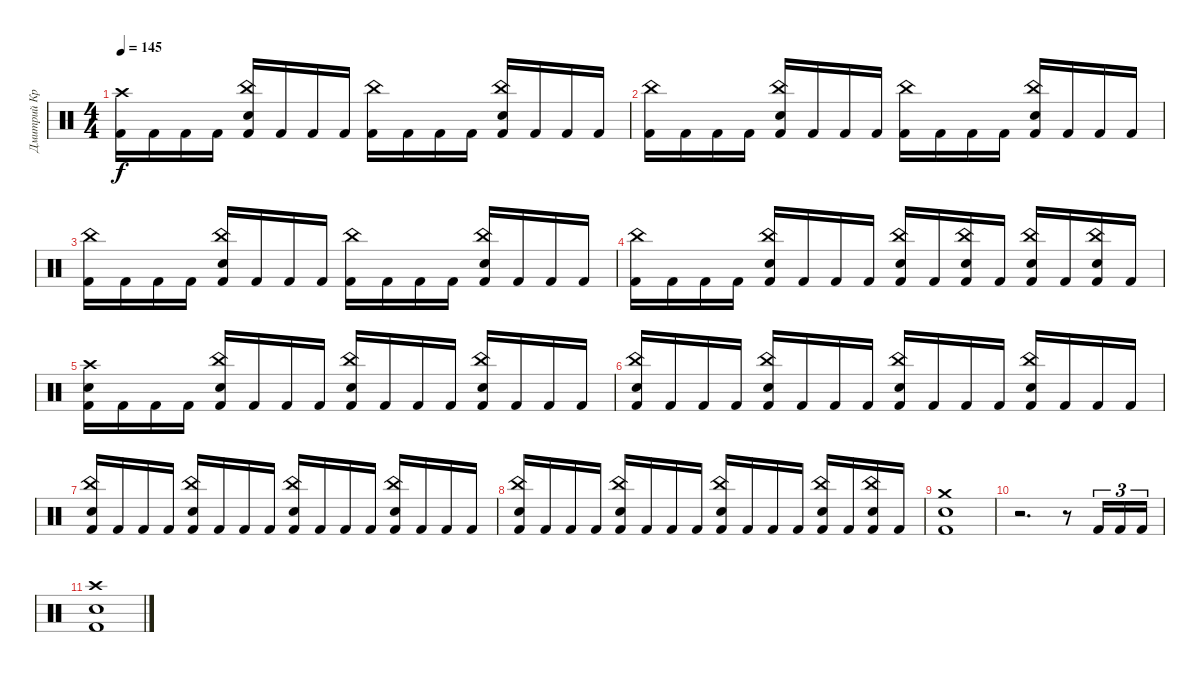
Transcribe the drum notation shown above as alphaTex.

\track ("Дмитрий Кривенков" "Дмитрий Кр") {instrument percussion}
\staff {score}
\articulation defaults
\ts (4 4)
\tempo 145
\clef neutral
\ks c
("Crash high (hit)" "Kick (hit) 2").16{dy f} "Kick (hit) 2".16 "Kick (hit) 2".16 "Kick (hit) 2".16 ("China (hit)" "Electric Snare (hit)" "Kick (hit) 2").16 "Kick (hit) 2".16 "Kick (hit) 2".16 "Kick (hit) 2".16 ("China (hit)" "Kick (hit) 2").16 "Kick (hit) 2".16 "Kick (hit) 2".16 "Kick (hit) 2".16 ("China (hit)" "Electric Snare (hit)" "Kick (hit) 2").16 "Kick (hit) 2".16 "Kick (hit) 2".16 "Kick (hit) 2".16 |
("China (hit)" "Kick (hit) 2").16 "Kick (hit) 2".16 "Kick (hit) 2".16 "Kick (hit) 2".16 ("China (hit)" "Electric Snare (hit)" "Kick (hit) 2").16 "Kick (hit) 2".16 "Kick (hit) 2".16 "Kick (hit) 2".16 ("China (hit)" "Kick (hit) 2").16 "Kick (hit) 2".16 "Kick (hit) 2".16 "Kick (hit) 2".16 ("China (hit)" "Electric Snare (hit)" "Kick (hit) 2").16 "Kick (hit) 2".16 "Kick (hit) 2".16 "Kick (hit) 2".16 |
("China (hit)" "Kick (hit) 2").16 "Kick (hit) 2".16 "Kick (hit) 2".16 "Kick (hit) 2".16 ("China (hit)" "Electric Snare (hit)" "Kick (hit) 2").16 "Kick (hit) 2".16 "Kick (hit) 2".16 "Kick (hit) 2".16 ("China (hit)" "Kick (hit) 2").16 "Kick (hit) 2".16 "Kick (hit) 2".16 "Kick (hit) 2".16 ("China (hit)" "Electric Snare (hit)" "Kick (hit) 2").16 "Kick (hit) 2".16 "Kick (hit) 2".16 "Kick (hit) 2".16 |
("China (hit)" "Kick (hit) 2").16 "Kick (hit) 2".16 "Kick (hit) 2".16 "Kick (hit) 2".16 ("China (hit)" "Electric Snare (hit)" "Kick (hit) 2").16 "Kick (hit) 2".16 "Kick (hit) 2".16 "Kick (hit) 2".16 ("China (hit)" "Electric Snare (hit)" "Kick (hit) 2").16 "Kick (hit) 2".16 ("China (hit)" "Electric Snare (hit)" "Kick (hit) 2").16 "Kick (hit) 2".16 ("China (hit)" "Electric Snare (hit)" "Kick (hit) 2").16 "Kick (hit) 2".16 ("China (hit)" "Electric Snare (hit)" "Kick (hit) 2").16 "Kick (hit) 2".16 |
("Crash high (hit)" "Electric Snare (hit)" "Kick (hit) 2").16 "Kick (hit) 2".16 "Kick (hit) 2".16 "Kick (hit) 2".16 ("China (hit)" "Electric Snare (hit)" "Kick (hit) 2").16 "Kick (hit) 2".16 "Kick (hit) 2".16 "Kick (hit) 2".16 ("China (hit)" "Electric Snare (hit)" "Kick (hit) 2").16 "Kick (hit) 2".16 "Kick (hit) 2".16 "Kick (hit) 2".16 ("China (hit)" "Electric Snare (hit)" "Kick (hit) 2").16 "Kick (hit) 2".16 "Kick (hit) 2".16 "Kick (hit) 2".16 |
("China (hit)" "Electric Snare (hit)" "Kick (hit) 2").16 "Kick (hit) 2".16 "Kick (hit) 2".16 "Kick (hit) 2".16 ("China (hit)" "Electric Snare (hit)" "Kick (hit) 2").16 "Kick (hit) 2".16 "Kick (hit) 2".16 "Kick (hit) 2".16 ("China (hit)" "Electric Snare (hit)" "Kick (hit) 2").16 "Kick (hit) 2".16 "Kick (hit) 2".16 "Kick (hit) 2".16 ("China (hit)" "Electric Snare (hit)" "Kick (hit) 2").16 "Kick (hit) 2".16 "Kick (hit) 2".16 "Kick (hit) 2".16 |
("China (hit)" "Electric Snare (hit)" "Kick (hit) 2").16 "Kick (hit) 2".16 "Kick (hit) 2".16 "Kick (hit) 2".16 ("China (hit)" "Electric Snare (hit)" "Kick (hit) 2").16 "Kick (hit) 2".16 "Kick (hit) 2".16 "Kick (hit) 2".16 ("China (hit)" "Electric Snare (hit)" "Kick (hit) 2").16 "Kick (hit) 2".16 "Kick (hit) 2".16 "Kick (hit) 2".16 ("China (hit)" "Electric Snare (hit)" "Kick (hit) 2").16 "Kick (hit) 2".16 "Kick (hit) 2".16 "Kick (hit) 2".16 |
("China (hit)" "Electric Snare (hit)" "Kick (hit) 2").16 "Kick (hit) 2".16 "Kick (hit) 2".16 "Kick (hit) 2".16 ("China (hit)" "Electric Snare (hit)" "Kick (hit) 2").16 "Kick (hit) 2".16 "Kick (hit) 2".16 "Kick (hit) 2".16 ("China (hit)" "Electric Snare (hit)" "Kick (hit) 2").16 "Kick (hit) 2".16 "Kick (hit) 2".16 "Kick (hit) 2".16 ("China (hit)" "Electric Snare (hit)" "Kick (hit) 2").16 "Kick (hit) 2".16 ("China (hit)" "Electric Snare (hit)" "Kick (hit) 2").16 "Kick (hit) 2".16 |
("Crash medium (hit)" "Electric Snare (hit)" "Kick (hit) 2").1 |
r.2{d} r.8 "Kick (hit) 2".16{tu (3 2)} "Kick (hit) 2".16{tu (3 2)} "Kick (hit) 2".16{tu (3 2)} |
("Crash high (hit)" "Electric Snare (hit)" "Kick (hit) 2").1
